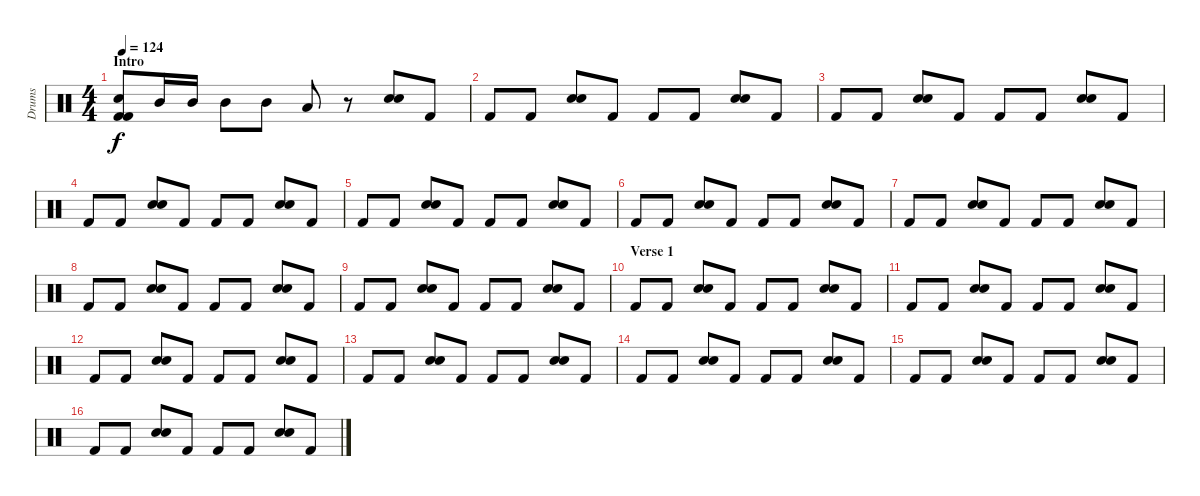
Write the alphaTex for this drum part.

\track ("Drums" "Drums") {instrument percussion}
\staff {score}
\articulation defaults
\ts (4 4)
\section ("" "Intro")
\tempo 124
\clef neutral
\ks c
("Snare (hit) 2" "Kick (hit) 2" "Kick (hit) 2").8{dy f} "Mid Tom (hit)".16 "Mid Tom (hit)".16 "Mid Tom (hit)".8 "Mid Tom (hit)".8 "Low Tom (hit)".8 r.8 ("Snare (hit) 2" "Snare (hit) 2").8 "Kick (hit) 2".8 |
"Kick (hit) 2".8 "Kick (hit) 2".8 ("Snare (hit) 2" "Snare (hit) 2").8 "Kick (hit) 2".8 "Kick (hit) 2".8 "Kick (hit) 2".8 ("Snare (hit) 2" "Snare (hit) 2").8 "Kick (hit) 2".8 |
"Kick (hit) 2".8 "Kick (hit) 2".8 ("Snare (hit) 2" "Snare (hit) 2").8 "Kick (hit) 2".8 "Kick (hit) 2".8 "Kick (hit) 2".8 ("Snare (hit) 2" "Snare (hit) 2").8 "Kick (hit) 2".8 |
"Kick (hit) 2".8 "Kick (hit) 2".8 ("Snare (hit) 2" "Snare (hit) 2").8 "Kick (hit) 2".8 "Kick (hit) 2".8 "Kick (hit) 2".8 ("Snare (hit) 2" "Snare (hit) 2").8 "Kick (hit) 2".8 |
"Kick (hit) 2".8 "Kick (hit) 2".8 ("Snare (hit) 2" "Snare (hit) 2").8 "Kick (hit) 2".8 "Kick (hit) 2".8 "Kick (hit) 2".8 ("Snare (hit) 2" "Snare (hit) 2").8 "Kick (hit) 2".8 |
"Kick (hit) 2".8 "Kick (hit) 2".8 ("Snare (hit) 2" "Snare (hit) 2").8 "Kick (hit) 2".8 "Kick (hit) 2".8 "Kick (hit) 2".8 ("Snare (hit) 2" "Snare (hit) 2").8 "Kick (hit) 2".8 |
"Kick (hit) 2".8 "Kick (hit) 2".8 ("Snare (hit) 2" "Snare (hit) 2").8 "Kick (hit) 2".8 "Kick (hit) 2".8 "Kick (hit) 2".8 ("Snare (hit) 2" "Snare (hit) 2").8 "Kick (hit) 2".8 |
"Kick (hit) 2".8 "Kick (hit) 2".8 ("Snare (hit) 2" "Snare (hit) 2").8 "Kick (hit) 2".8 "Kick (hit) 2".8 "Kick (hit) 2".8 ("Snare (hit) 2" "Snare (hit) 2").8 "Kick (hit) 2".8 |
"Kick (hit) 2".8 "Kick (hit) 2".8 ("Snare (hit) 2" "Snare (hit) 2").8 "Kick (hit) 2".8 "Kick (hit) 2".8 "Kick (hit) 2".8 ("Snare (hit) 2" "Snare (hit) 2").8 "Kick (hit) 2".8 |
\section ("" "Verse 1")
"Kick (hit) 2".8 "Kick (hit) 2".8 ("Snare (hit) 2" "Snare (hit) 2").8 "Kick (hit) 2".8 "Kick (hit) 2".8 "Kick (hit) 2".8 ("Snare (hit) 2" "Snare (hit) 2").8 "Kick (hit) 2".8 |
"Kick (hit) 2".8 "Kick (hit) 2".8 ("Snare (hit) 2" "Snare (hit) 2").8 "Kick (hit) 2".8 "Kick (hit) 2".8 "Kick (hit) 2".8 ("Snare (hit) 2" "Snare (hit) 2").8 "Kick (hit) 2".8 |
"Kick (hit) 2".8 "Kick (hit) 2".8 ("Snare (hit) 2" "Snare (hit) 2").8 "Kick (hit) 2".8 "Kick (hit) 2".8 "Kick (hit) 2".8 ("Snare (hit) 2" "Snare (hit) 2").8 "Kick (hit) 2".8 |
"Kick (hit) 2".8 "Kick (hit) 2".8 ("Snare (hit) 2" "Snare (hit) 2").8 "Kick (hit) 2".8 "Kick (hit) 2".8 "Kick (hit) 2".8 ("Snare (hit) 2" "Snare (hit) 2").8 "Kick (hit) 2".8 |
"Kick (hit) 2".8 "Kick (hit) 2".8 ("Snare (hit) 2" "Snare (hit) 2").8 "Kick (hit) 2".8 "Kick (hit) 2".8 "Kick (hit) 2".8 ("Snare (hit) 2" "Snare (hit) 2").8 "Kick (hit) 2".8 |
"Kick (hit) 2".8 "Kick (hit) 2".8 ("Snare (hit) 2" "Snare (hit) 2").8 "Kick (hit) 2".8 "Kick (hit) 2".8 "Kick (hit) 2".8 ("Snare (hit) 2" "Snare (hit) 2").8 "Kick (hit) 2".8 |
"Kick (hit) 2".8 "Kick (hit) 2".8 ("Snare (hit) 2" "Snare (hit) 2").8 "Kick (hit) 2".8 "Kick (hit) 2".8 "Kick (hit) 2".8 ("Snare (hit) 2" "Snare (hit) 2").8 "Kick (hit) 2".8
